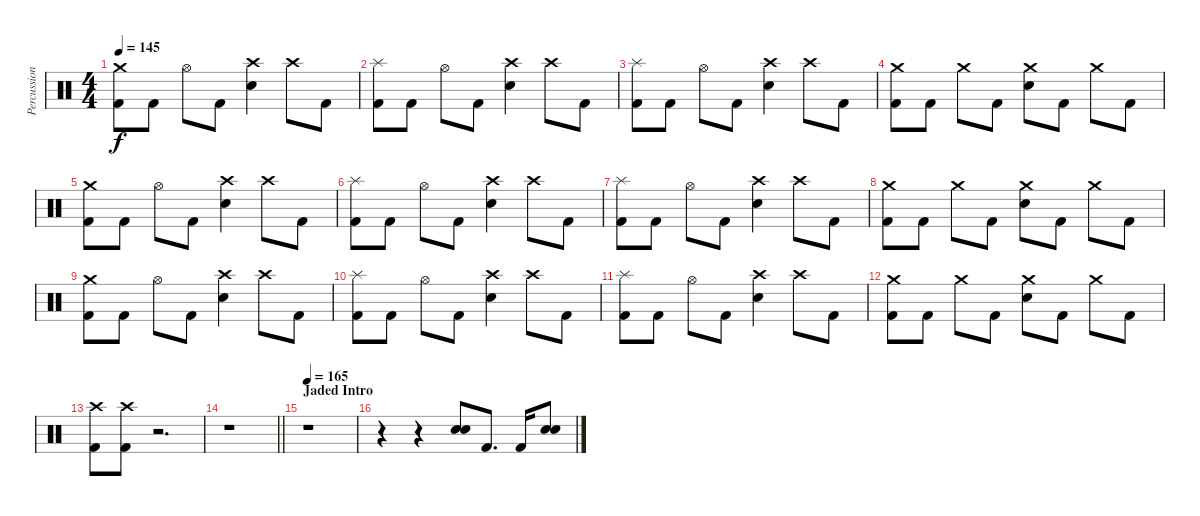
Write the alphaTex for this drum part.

\track ("Percussion" "Percussion") {instrument percussion}
\staff {score}
\articulation defaults
\ts (4 4)
\tempo 145
\clef neutral
\ks c
("Crash medium (hit)" "Kick (hit) 2").8{dy f} "Kick (hit) 2".8 "Hi-Hat (open)".8 "Kick (hit) 2".8 ("Crash high (hit)" "Electric Snare (hit)").4 "Crash high (hit)".8 "Kick (hit) 2".8 |
("Splash (hit)" "Kick (hit) 2").8 "Kick (hit) 2".8 "Hi-Hat (open)".8 "Kick (hit) 2".8 ("Crash high (hit)" "Electric Snare (hit)").4 "Crash high (hit)".8 "Kick (hit) 2".8 |
("Splash (hit)" "Kick (hit) 2").8 "Kick (hit) 2".8 "Hi-Hat (open)".8 "Kick (hit) 2".8 ("Crash high (hit)" "Electric Snare (hit)").4 "Crash high (hit)".8 "Kick (hit) 2".8 |
("Crash medium (hit)" "Kick (hit) 2").8 "Kick (hit) 2".8 "Crash medium (hit)".8 "Kick (hit) 2".8 ("Crash medium (hit)" "Electric Snare (hit)").8 "Kick (hit) 2".8 "Crash medium (hit)".8 "Kick (hit) 2".8 |
("Crash medium (hit)" "Kick (hit) 2").8 "Kick (hit) 2".8 "Hi-Hat (open)".8 "Kick (hit) 2".8 ("Crash high (hit)" "Electric Snare (hit)").4 "Crash high (hit)".8 "Kick (hit) 2".8 |
("Splash (hit)" "Kick (hit) 2").8 "Kick (hit) 2".8 "Hi-Hat (open)".8 "Kick (hit) 2".8 ("Crash high (hit)" "Electric Snare (hit)").4 "Crash high (hit)".8 "Kick (hit) 2".8 |
("Splash (hit)" "Kick (hit) 2").8 "Kick (hit) 2".8 "Hi-Hat (open)".8 "Kick (hit) 2".8 ("Crash high (hit)" "Electric Snare (hit)").4 "Crash high (hit)".8 "Kick (hit) 2".8 |
("Crash medium (hit)" "Kick (hit) 2").8 "Kick (hit) 2".8 "Crash medium (hit)".8 "Kick (hit) 2".8 ("Crash medium (hit)" "Electric Snare (hit)").8 "Kick (hit) 2".8 "Crash medium (hit)".8 "Kick (hit) 2".8 |
("Crash medium (hit)" "Kick (hit) 2").8 "Kick (hit) 2".8 "Hi-Hat (open)".8 "Kick (hit) 2".8 ("Crash high (hit)" "Electric Snare (hit)").4 "Crash high (hit)".8 "Kick (hit) 2".8 |
("Splash (hit)" "Kick (hit) 2").8 "Kick (hit) 2".8 "Hi-Hat (open)".8 "Kick (hit) 2".8 ("Crash high (hit)" "Electric Snare (hit)").4 "Crash high (hit)".8 "Kick (hit) 2".8 |
("Splash (hit)" "Kick (hit) 2").8 "Kick (hit) 2".8 "Hi-Hat (open)".8 "Kick (hit) 2".8 ("Crash high (hit)" "Electric Snare (hit)").4 "Crash high (hit)".8 "Kick (hit) 2".8 |
("Crash medium (hit)" "Kick (hit) 2").8 "Kick (hit) 2".8 "Crash medium (hit)".8 "Kick (hit) 2".8 ("Crash medium (hit)" "Electric Snare (hit)").8 "Kick (hit) 2".8 "Crash medium (hit)".8 "Kick (hit) 2".8 |
("Crash high (hit)" "Kick (hit) 2").8 ("Crash high (hit)" "Kick (hit) 2").8 r.2{d} |
\barLineRight lightlight
r.1 |
\section ("" "Jaded Intro")
\tempo 165
r.1 |
r.4 r.4 ("Electric Snare (hit)" "Electric Snare (hit)").8 "Kick (hit) 2".8{d} "Kick (hit) 2".16 ("Electric Snare (hit)" "Electric Snare (hit)").8
